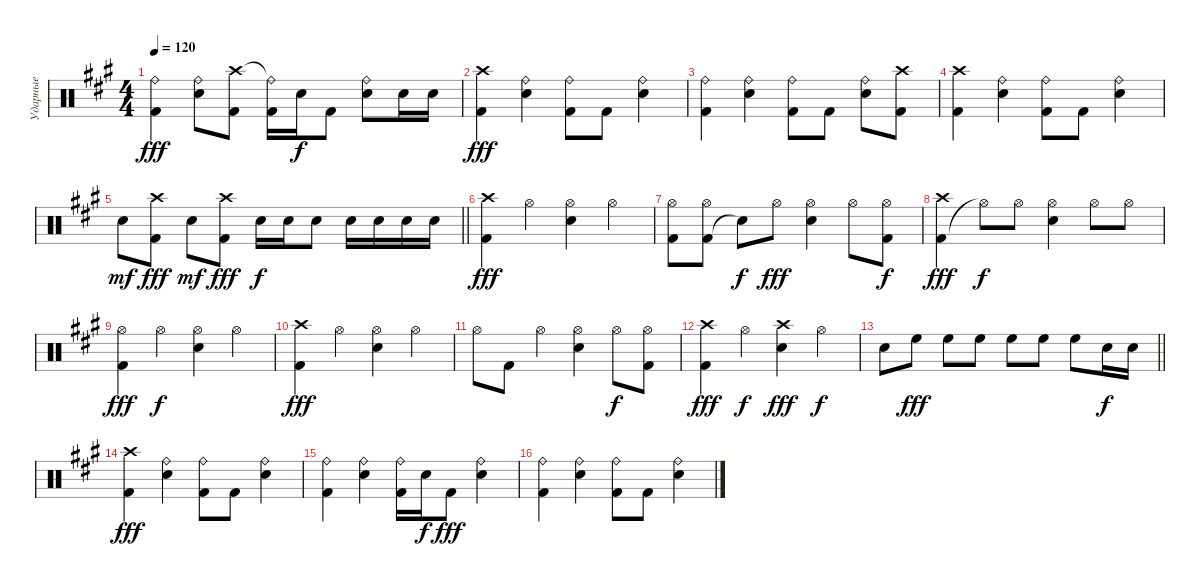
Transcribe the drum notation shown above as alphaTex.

\track ("Ударные" "Ударные") {instrument percussion}
\staff {score}
\articulation defaults
\ts (4 4)
\tempo 120
\clef neutral
\ks a
("Kick (hit) 2" "Ride (bell)").4{dy fff} ("Snare (hit) 2" "Ride (bell)").8 ("Kick (hit) 2" "Crash high (hit)").8 ("Kick (hit) 2" "Ride (bell)"{t}).16 "Snare (hit) 2".16{dy f} "Kick (hit) 2".8 ("Snare (hit) 2" "Ride (bell)").8 "Snare (hit) 2".16 "Snare (hit) 2".16 |
("Kick (hit) 2" "Crash high (hit)").4{dy fff} ("Snare (hit) 2" "Ride (bell)").4 ("Kick (hit) 2" "Ride (bell)").8 "Kick (hit) 2".8 ("Snare (hit) 2" "Ride (bell)").4 |
("Kick (hit) 2" "Ride (bell)").4 ("Snare (hit) 2" "Ride (bell)").4 ("Kick (hit) 2" "Ride (bell)").8 "Kick (hit) 2".8 ("Snare (hit) 2" "Ride (bell)").8 ("Kick (hit) 2" "Crash high (hit)").8 |
("Kick (hit) 2" "Crash high (hit)").4 ("Snare (hit) 2" "Ride (bell)").4 ("Kick (hit) 2" "Ride (bell)").8 "Kick (hit) 2".8 ("Snare (hit) 2" "Ride (bell)").4 |
\barLineRight lightlight "Snare (hit) 2".8{dy mf}
("Kick (hit) 2" "Crash high (hit)").8{dy fff} "Snare (hit) 2".8{dy mf} ("Kick (hit) 2" "Crash high (hit)").8{dy fff} "Snare (hit) 2".16{dy f} "Snare (hit) 2".16 "Snare (hit) 2".8 "Snare (hit) 2".16 "Snare (hit) 2".16 "Snare (hit) 2".16 "Snare (hit) 2".16 |
("Kick (hit) 2" "Crash high (hit)").4{dy fff} "Hi-Hat (open)".4 ("Snare (hit) 2" "Hi-Hat (open)").4 "Hi-Hat (open)".4 |
("Kick (hit) 2" "Hi-Hat (open)").8 ("Kick (hit) 2" "Hi-Hat (open)").8 "Snare (hit)"{t}.8{dy f} "Hi-Hat (open)".8{dy fff} ("Snare (hit) 2" "Hi-Hat (open)").4 "Hi-Hat (open)".8 ("Kick (hit) 2" "Hi-Hat (open)").8{dy f} |
("Kick (hit) 2" "Crash high (hit)").4{dy fff} "Hi-Hat (open)"{t}.8{dy f} "Hi-Hat (open)".8 ("Snare (hit) 2" "Hi-Hat (open)").4 "Hi-Hat (open)".8 "Hi-Hat (open)".8 |
("Kick (hit) 2" "Hi-Hat (open)").4{dy fff} "Hi-Hat (open)".4{dy f} ("Snare (hit) 2" "Hi-Hat (open)").4 "Hi-Hat (open)".4 |
("Kick (hit) 2" "Crash high (hit)").4{dy fff} "Hi-Hat (open)".4 ("Snare (hit) 2" "Hi-Hat (open)").4 "Hi-Hat (open)".4 |
"Hi-Hat (open)".8 "Kick (hit) 2".8 "Hi-Hat (open)".4 ("Snare (hit) 2" "Hi-Hat (open)").4 "Hi-Hat (open)".8{dy f} ("Kick (hit) 2" "Hi-Hat (open)").8 |
("Kick (hit) 2" "Crash high (hit)").4{dy fff} "Hi-Hat (open)".4{dy f} ("Snare (hit) 2" "Crash high (hit)").4{dy fff} "Hi-Hat (open)".4{dy f} |
\barLineRight lightlight "Snare (hit) 2".8 "High Floor Tom (hit)".8{dy fff} "High Floor Tom (hit)".8 "High Floor Tom (hit)".8 "High Floor Tom (hit)".8 "High Floor Tom (hit)".8 "High Floor Tom (hit)".8 "Snare (hit) 2".16{dy f} "Snare (hit) 2".16
|
("Kick (hit) 2" "Crash high (hit)").4{dy fff} ("Snare (hit) 2" "Ride (bell)").4 ("Kick (hit) 2" "Ride (bell)").8 "Kick (hit) 2".8 ("Snare (hit) 2" "Ride (bell)").4 |
("Kick (hit) 2" "Ride (bell)").4 ("Snare (hit) 2" "Ride (bell)").4 ("Kick (hit) 2" "Ride (bell)").16 "Snare (hit) 2".16{dy f} "Kick (hit) 2".8{dy fff} ("Snare (hit) 2" "Ride (bell)").4 |
("Kick (hit) 2" "Ride (bell)").4 ("Snare (hit) 2" "Ride (bell)").4 ("Kick (hit) 2" "Ride (bell)").8 "Kick (hit) 2".8 ("Snare (hit) 2" "Ride (bell)").4
